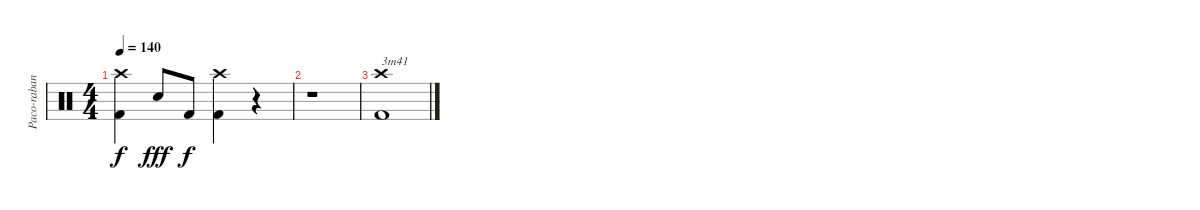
\track ("Paco-rabane" "Paco-raban") {instrument percussion}
\staff {score}
\articulation defaults
\ts (4 4)
\tempo 140
\clef neutral
\ks c
("Crash high (hit)" "Kick (hit) 2").4{dy f} "Snare (hit) 2".8{dy fff} "Kick (hit) 2".8{dy f} ("Crash high (hit)" "Kick (hit) 2").4 r.4 |
r.1 |
("Crash high (hit)" "Kick (hit) 2").1{txt "3m41"}
